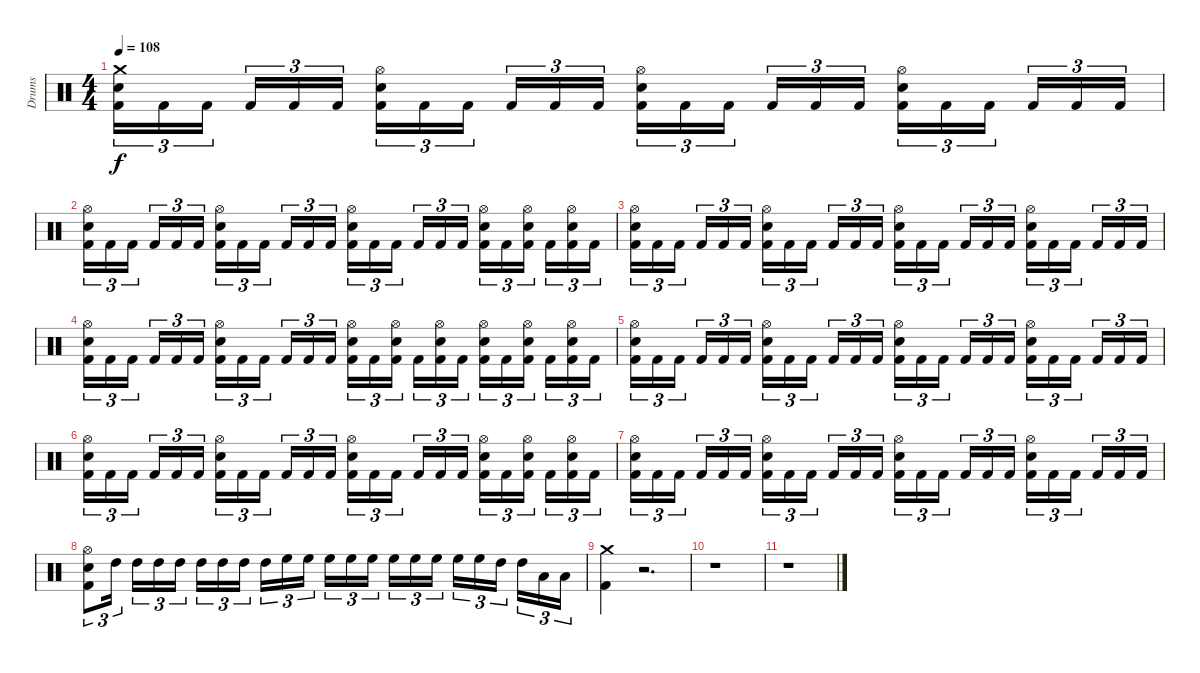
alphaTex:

\track ("Drums" "Drums") {instrument percussion}
\staff {score}
\articulation defaults
\ts (4 4)
\tempo 108
\clef neutral
\ks c
("Crash medium (hit)" "Snare (hit) 2" "Kick (hit) 2").16{tu (3 2) dy f} "Kick (hit) 2".16{tu (3 2)} "Kick (hit) 2".16{tu (3 2)} "Kick (hit) 2".16{tu (3 2)} "Kick (hit) 2".16{tu (3 2)} "Kick (hit) 2".16{tu (3 2)} ("Hi-Hat (open)" "Snare (hit) 2" "Kick (hit) 2").16{tu (3 2)} "Kick (hit) 2".16{tu (3 2)} "Kick (hit) 2".16{tu (3 2)} "Kick (hit) 2".16{tu (3 2)} "Kick (hit) 2".16{tu (3 2)} "Kick (hit) 2".16{tu (3 2)} ("Hi-Hat (open)" "Snare (hit) 2" "Kick (hit) 2").16{tu (3 2)} "Kick (hit) 2".16{tu (3 2)} "Kick (hit) 2".16{tu (3 2)} "Kick (hit) 2".16{tu (3 2)} "Kick (hit) 2".16{tu (3 2)} "Kick (hit) 2".16{tu (3 2)} ("Hi-Hat (open)" "Snare (hit) 2" "Kick (hit) 2").16{tu (3 2)} "Kick (hit) 2".16{tu (3 2)} "Kick (hit) 2".16{tu (3 2)} "Kick (hit) 2".16{tu (3 2)} "Kick (hit) 2".16{tu (3 2)} "Kick (hit) 2".16{tu (3 2)} |
("Hi-Hat (open)" "Snare (hit) 2" "Kick (hit) 2").16{tu (3 2)} "Kick (hit) 2".16{tu (3 2)} "Kick (hit) 2".16{tu (3 2)} "Kick (hit) 2".16{tu (3 2)} "Kick (hit) 2".16{tu (3 2)} "Kick (hit) 2".16{tu (3 2)} ("Hi-Hat (open)" "Snare (hit) 2" "Kick (hit) 2").16{tu (3 2)} "Kick (hit) 2".16{tu (3 2)} "Kick (hit) 2".16{tu (3 2)} "Kick (hit) 2".16{tu (3 2)} "Kick (hit) 2".16{tu (3 2)} "Kick (hit) 2".16{tu (3 2)} ("Hi-Hat (open)" "Snare (hit) 2" "Kick (hit) 2").16{tu (3 2)} "Kick (hit) 2".16{tu (3 2)} "Kick (hit) 2".16{tu (3 2)} "Kick (hit) 2".16{tu (3 2)} "Kick (hit) 2".16{tu (3 2)} "Kick (hit) 2".16{tu (3 2)} ("Hi-Hat (open)" "Snare (hit) 2" "Kick (hit) 2").16{tu (3 2)} "Kick (hit) 2".16{tu (3 2)} ("Hi-Hat (open)" "Snare (hit) 2" "Kick (hit) 2").16{tu (3 2)} "Kick (hit) 2".16{tu (3 2)} ("Hi-Hat (open)" "Snare (hit) 2" "Kick (hit) 2").16{tu (3 2)} "Kick (hit) 2".16{tu (3 2)} |
("Hi-Hat (open)" "Snare (hit) 2" "Kick (hit) 2").16{tu (3 2)} "Kick (hit) 2".16{tu (3 2)} "Kick (hit) 2".16{tu (3 2)} "Kick (hit) 2".16{tu (3 2)} "Kick (hit) 2".16{tu (3 2)} "Kick (hit) 2".16{tu (3 2)} ("Hi-Hat (open)" "Snare (hit) 2" "Kick (hit) 2").16{tu (3 2)} "Kick (hit) 2".16{tu (3 2)} "Kick (hit) 2".16{tu (3 2)} "Kick (hit) 2".16{tu (3 2)} "Kick (hit) 2".16{tu (3 2)} "Kick (hit) 2".16{tu (3 2)} ("Hi-Hat (open)" "Snare (hit) 2" "Kick (hit) 2").16{tu (3 2)} "Kick (hit) 2".16{tu (3 2)} "Kick (hit) 2".16{tu (3 2)} "Kick (hit) 2".16{tu (3 2)} "Kick (hit) 2".16{tu (3 2)} "Kick (hit) 2".16{tu (3 2)} ("Hi-Hat (open)" "Snare (hit) 2" "Kick (hit) 2").16{tu (3 2)} "Kick (hit) 2".16{tu (3 2)} "Kick (hit) 2".16{tu (3 2)} "Kick (hit) 2".16{tu (3 2)} "Kick (hit) 2".16{tu (3 2)} "Kick (hit) 2".16{tu (3 2)} |
("Hi-Hat (open)" "Snare (hit) 2" "Kick (hit) 2").16{tu (3 2)} "Kick (hit) 2".16{tu (3 2)} "Kick (hit) 2".16{tu (3 2)} "Kick (hit) 2".16{tu (3 2)} "Kick (hit) 2".16{tu (3 2)} "Kick (hit) 2".16{tu (3 2)} ("Hi-Hat (open)" "Snare (hit) 2" "Kick (hit) 2").16{tu (3 2)} "Kick (hit) 2".16{tu (3 2)} "Kick (hit) 2".16{tu (3 2)} "Kick (hit) 2".16{tu (3 2)} "Kick (hit) 2".16{tu (3 2)} "Kick (hit) 2".16{tu (3 2)} ("Hi-Hat (open)" "Snare (hit) 2" "Kick (hit) 2").16{tu (3 2)} "Kick (hit) 2".16{tu (3 2)} ("Hi-Hat (open)" "Snare (hit) 2" "Kick (hit) 2").16{tu (3 2)} "Kick (hit) 2".16{tu (3 2)} ("Hi-Hat (open)" "Snare (hit) 2" "Kick (hit) 2").16{tu (3 2)} "Kick (hit) 2".16{tu (3 2)} ("Hi-Hat (open)" "Snare (hit) 2" "Kick (hit) 2").16{tu (3 2)} "Kick (hit) 2".16{tu (3 2)} ("Hi-Hat (open)" "Snare (hit) 2" "Kick (hit) 2").16{tu (3 2)} "Kick (hit) 2".16{tu (3 2)} ("Hi-Hat (open)" "Snare (hit) 2" "Kick (hit) 2").16{tu (3 2)} "Kick (hit) 2".16{tu (3 2)} |
("Hi-Hat (open)" "Snare (hit) 2" "Kick (hit) 2").16{tu (3 2)} "Kick (hit) 2".16{tu (3 2)} "Kick (hit) 2".16{tu (3 2)} "Kick (hit) 2".16{tu (3 2)} "Kick (hit) 2".16{tu (3 2)} "Kick (hit) 2".16{tu (3 2)} ("Hi-Hat (open)" "Snare (hit) 2" "Kick (hit) 2").16{tu (3 2)} "Kick (hit) 2".16{tu (3 2)} "Kick (hit) 2".16{tu (3 2)} "Kick (hit) 2".16{tu (3 2)} "Kick (hit) 2".16{tu (3 2)} "Kick (hit) 2".16{tu (3 2)} ("Hi-Hat (open)" "Snare (hit) 2" "Kick (hit) 2").16{tu (3 2)} "Kick (hit) 2".16{tu (3 2)} "Kick (hit) 2".16{tu (3 2)} "Kick (hit) 2".16{tu (3 2)} "Kick (hit) 2".16{tu (3 2)} "Kick (hit) 2".16{tu (3 2)} ("Hi-Hat (open)" "Snare (hit) 2" "Kick (hit) 2").16{tu (3 2)} "Kick (hit) 2".16{tu (3 2)} "Kick (hit) 2".16{tu (3 2)} "Kick (hit) 2".16{tu (3 2)} "Kick (hit) 2".16{tu (3 2)} "Kick (hit) 2".16{tu (3 2)} |
("Hi-Hat (open)" "Snare (hit) 2" "Kick (hit) 2").16{tu (3 2)} "Kick (hit) 2".16{tu (3 2)} "Kick (hit) 2".16{tu (3 2)} "Kick (hit) 2".16{tu (3 2)} "Kick (hit) 2".16{tu (3 2)} "Kick (hit) 2".16{tu (3 2)} ("Hi-Hat (open)" "Snare (hit) 2" "Kick (hit) 2").16{tu (3 2)} "Kick (hit) 2".16{tu (3 2)} "Kick (hit) 2".16{tu (3 2)} "Kick (hit) 2".16{tu (3 2)} "Kick (hit) 2".16{tu (3 2)} "Kick (hit) 2".16{tu (3 2)} ("Hi-Hat (open)" "Snare (hit) 2" "Kick (hit) 2").16{tu (3 2)} "Kick (hit) 2".16{tu (3 2)} "Kick (hit) 2".16{tu (3 2)} "Kick (hit) 2".16{tu (3 2)} "Kick (hit) 2".16{tu (3 2)} "Kick (hit) 2".16{tu (3 2)} ("Hi-Hat (open)" "Snare (hit) 2" "Kick (hit) 2").16{tu (3 2)} "Kick (hit) 2".16{tu (3 2)} ("Hi-Hat (open)" "Snare (hit) 2" "Kick (hit) 2").16{tu (3 2)} "Kick (hit) 2".16{tu (3 2)} ("Hi-Hat (open)" "Snare (hit) 2" "Kick (hit) 2").16{tu (3 2)} "Kick (hit) 2".16{tu (3 2)} |
("Hi-Hat (open)" "Snare (hit) 2" "Kick (hit) 2").16{tu (3 2)} "Kick (hit) 2".16{tu (3 2)} "Kick (hit) 2".16{tu (3 2)} "Kick (hit) 2".16{tu (3 2)} "Kick (hit) 2".16{tu (3 2)} "Kick (hit) 2".16{tu (3 2)} ("Hi-Hat (open)" "Snare (hit) 2" "Kick (hit) 2").16{tu (3 2)} "Kick (hit) 2".16{tu (3 2)} "Kick (hit) 2".16{tu (3 2)} "Kick (hit) 2".16{tu (3 2)} "Kick (hit) 2".16{tu (3 2)} "Kick (hit) 2".16{tu (3 2)} ("Hi-Hat (open)" "Snare (hit) 2" "Kick (hit) 2").16{tu (3 2)} "Kick (hit) 2".16{tu (3 2)} "Kick (hit) 2".16{tu (3 2)} "Kick (hit) 2".16{tu (3 2)} "Kick (hit) 2".16{tu (3 2)} "Kick (hit) 2".16{tu (3 2)} ("Hi-Hat (open)" "Snare (hit) 2" "Kick (hit) 2").16{tu (3 2)} "Kick (hit) 2".16{tu (3 2)} "Kick (hit) 2".16{tu (3 2)} "Kick (hit) 2".16{tu (3 2)} "Kick (hit) 2".16{tu (3 2)} "Kick (hit) 2".16{tu (3 2)} |
("Hi-Hat (open)" "Snare (hit) 2" "Kick (hit) 2").8{tu (3 2)} "High Tom (hit)".16{tu (3 2)} "High Tom (hit)".16{tu (3 2)} "High Tom (hit)".16{tu (3 2)} "High Tom (hit)".16{tu (3 2)} "High Tom (hit)".16{tu (3 2)} "High Tom (hit)".16{tu (3 2)} "High Tom (hit)".16{tu (3 2)} "High Tom (hit)".16{tu (3 2)} "High Floor Tom (hit)".16{tu (3 2)} "High Floor Tom (hit)".16{tu (3 2)} "High Floor Tom (hit)".16{tu (3 2)} "High Floor Tom (hit)".16{tu (3 2)} "High Floor Tom (hit)".16{tu (3 2)} "High Floor Tom (hit)".16{tu (3 2)} "High Floor Tom (hit)".16{tu (3 2)} "High Floor Tom (hit)".16{tu (3 2)} "High Floor Tom (hit)".16{tu (3 2)} "High Floor Tom (hit)".16{tu (3 2)} "High Tom (hit)".16{tu (3 2)} "High Tom (hit)".16{tu (3 2)} "Low Tom (hit)".16{tu (3 2)} "Low Tom (hit)".16{tu (3 2)} |
("Crash medium (hit)" "Kick (hit) 2").4 r.2{d} |
r.1 |
r.1
